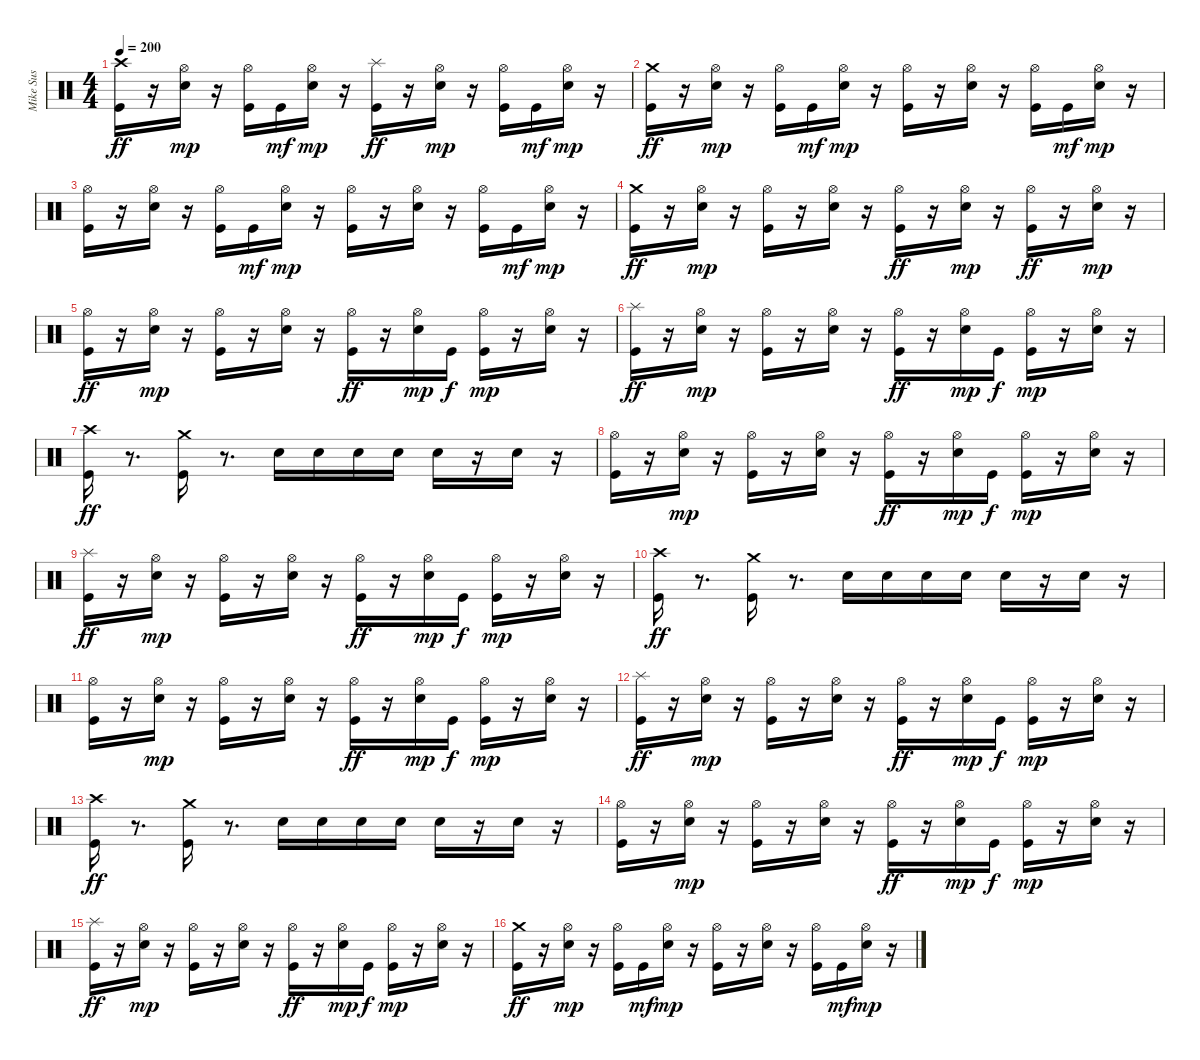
\track ("Mike Sus" "Mike Sus") {instrument percussion}
\staff {score}
\articulation defaults
\ts (4 4)
\tempo 200
\clef neutral
\ks c
("Kick (hit)" "Crash high (hit)").16{dy ff} r.16 ("Snare (hit) 2" "Hi-Hat (open)").16{dy mp} r.16 ("Kick (hit)" "Hi-Hat (open)").16 "Kick (hit)".16{dy mf} ("Snare (hit) 2" "Hi-Hat (open)").16{dy mp} r.16 ("Kick (hit)" "Splash (hit)").16{dy ff} r.16 ("Snare (hit) 2" "Hi-Hat (open)").16{dy mp} r.16 ("Kick (hit)" "Hi-Hat (open)").16 "Kick (hit)".16{dy mf} ("Snare (hit) 2" "Hi-Hat (open)").16{dy mp} r.16 |
("Kick (hit)" "Crash medium (hit)").16{dy ff} r.16 ("Snare (hit) 2" "Hi-Hat (open)").16{dy mp} r.16 ("Kick (hit)" "Hi-Hat (open)").16 "Kick (hit)".16{dy mf} ("Snare (hit) 2" "Hi-Hat (open)").16{dy mp} r.16 ("Kick (hit)" "Hi-Hat (open)").16 r.16 ("Snare (hit) 2" "Hi-Hat (open)").16 r.16 ("Kick (hit)" "Hi-Hat (open)").16 "Kick (hit)".16{dy mf} ("Snare (hit) 2" "Hi-Hat (open)").16{dy mp} r.16 |
("Kick (hit)" "Hi-Hat (open)").16 r.16 ("Snare (hit) 2" "Hi-Hat (open)").16 r.16 ("Kick (hit)" "Hi-Hat (open)").16 "Kick (hit)".16{dy mf} ("Snare (hit) 2" "Hi-Hat (open)").16{dy mp} r.16 ("Kick (hit)" "Hi-Hat (open)").16 r.16 ("Snare (hit) 2" "Hi-Hat (open)").16 r.16 ("Kick (hit)" "Hi-Hat (open)").16 "Kick (hit)".16{dy mf} ("Snare (hit) 2" "Hi-Hat (open)").16{dy mp} r.16 |
("Kick (hit)" "Crash medium (hit)").16{dy ff} r.16 ("Snare (hit) 2" "Hi-Hat (open)").16{dy mp} r.16 ("Kick (hit)" "Hi-Hat (open)").16 r.16 ("Snare (hit) 2" "Hi-Hat (open)").16 r.16 ("Hi-Hat (open)" "Kick (hit)").16{dy ff} r.16 ("Snare (hit) 2" "Hi-Hat (open)").16{dy mp} r.16 ("Hi-Hat (open)" "Kick (hit)").16{dy ff} r.16 ("Snare (hit) 2" "Hi-Hat (open)").16{dy mp} r.16 |
("Hi-Hat (open)" "Kick (hit)").16{dy ff} r.16 ("Snare (hit) 2" "Hi-Hat (open)").16{dy mp} r.16 ("Kick (hit)" "Hi-Hat (open)").16 r.16 ("Snare (hit) 2" "Hi-Hat (open)").16 r.16 ("Hi-Hat (open)" "Kick (hit)").16{dy ff} r.16 ("Snare (hit) 2" "Hi-Hat (open)").16{dy mp} "Kick (hit)".16{dy f} ("Hi-Hat (open)" "Kick (hit)").16{dy mp} r.16 ("Snare (hit) 2" "Hi-Hat (open)").16 r.16 |
("Kick (hit)" "Splash (hit)").16{dy ff} r.16 ("Snare (hit) 2" "Hi-Hat (open)").16{dy mp} r.16 ("Kick (hit)" "Hi-Hat (open)").16 r.16 ("Snare (hit) 2" "Hi-Hat (open)").16 r.16 ("Hi-Hat (open)" "Kick (hit)").16{dy ff} r.16 ("Snare (hit) 2" "Hi-Hat (open)").16{dy mp} "Kick (hit)".16{dy f} ("Hi-Hat (open)" "Kick (hit)").16{dy mp} r.16 ("Snare (hit) 2" "Hi-Hat (open)").16 r.16 |
("Kick (hit)" "Crash high (hit)").16{dy ff} r.8{d} ("Kick (hit)" "Crash medium (hit)").16 r.8{d} "Snare (hit) 2".16 "Snare (hit) 2".16 "Snare (hit) 2".16 "Snare (hit) 2".16 "Snare (hit) 2".16 r.16 "Snare (hit) 2".16 r.16 |
("Hi-Hat (open)" "Kick (hit)").16 r.16 ("Snare (hit) 2" "Hi-Hat (open)").16{dy mp} r.16 ("Kick (hit)" "Hi-Hat (open)").16 r.16 ("Snare (hit) 2" "Hi-Hat (open)").16 r.16 ("Hi-Hat (open)" "Kick (hit)").16{dy ff} r.16 ("Snare (hit) 2" "Hi-Hat (open)").16{dy mp} "Kick (hit)".16{dy f} ("Hi-Hat (open)" "Kick (hit)").16{dy mp} r.16 ("Snare (hit) 2" "Hi-Hat (open)").16 r.16 |
("Kick (hit)" "Splash (hit)").16{dy ff} r.16 ("Snare (hit) 2" "Hi-Hat (open)").16{dy mp} r.16 ("Kick (hit)" "Hi-Hat (open)").16 r.16 ("Snare (hit) 2" "Hi-Hat (open)").16 r.16 ("Hi-Hat (open)" "Kick (hit)").16{dy ff} r.16 ("Snare (hit) 2" "Hi-Hat (open)").16{dy mp} "Kick (hit)".16{dy f} ("Hi-Hat (open)" "Kick (hit)").16{dy mp} r.16 ("Snare (hit) 2" "Hi-Hat (open)").16 r.16 |
("Kick (hit)" "Crash high (hit)").16{dy ff} r.8{d} ("Kick (hit)" "Crash medium (hit)").16 r.8{d} "Snare (hit) 2".16 "Snare (hit) 2".16 "Snare (hit) 2".16 "Snare (hit) 2".16 "Snare (hit) 2".16 r.16 "Snare (hit) 2".16 r.16 |
("Hi-Hat (open)" "Kick (hit)").16 r.16 ("Snare (hit) 2" "Hi-Hat (open)").16{dy mp} r.16 ("Kick (hit)" "Hi-Hat (open)").16 r.16 ("Snare (hit) 2" "Hi-Hat (open)").16 r.16 ("Hi-Hat (open)" "Kick (hit)").16{dy ff} r.16 ("Snare (hit) 2" "Hi-Hat (open)").16{dy mp} "Kick (hit)".16{dy f} ("Hi-Hat (open)" "Kick (hit)").16{dy mp} r.16 ("Snare (hit) 2" "Hi-Hat (open)").16 r.16 |
("Kick (hit)" "Splash (hit)").16{dy ff} r.16 ("Snare (hit) 2" "Hi-Hat (open)").16{dy mp} r.16 ("Kick (hit)" "Hi-Hat (open)").16 r.16 ("Snare (hit) 2" "Hi-Hat (open)").16 r.16 ("Hi-Hat (open)" "Kick (hit)").16{dy ff} r.16 ("Snare (hit) 2" "Hi-Hat (open)").16{dy mp} "Kick (hit)".16{dy f} ("Hi-Hat (open)" "Kick (hit)").16{dy mp} r.16 ("Snare (hit) 2" "Hi-Hat (open)").16 r.16 |
("Kick (hit)" "Crash high (hit)").16{dy ff} r.8{d} ("Kick (hit)" "Crash medium (hit)").16 r.8{d} "Snare (hit) 2".16 "Snare (hit) 2".16 "Snare (hit) 2".16 "Snare (hit) 2".16 "Snare (hit) 2".16 r.16 "Snare (hit) 2".16 r.16 |
("Hi-Hat (open)" "Kick (hit)").16 r.16 ("Snare (hit) 2" "Hi-Hat (open)").16{dy mp} r.16 ("Kick (hit)" "Hi-Hat (open)").16 r.16 ("Snare (hit) 2" "Hi-Hat (open)").16 r.16 ("Hi-Hat (open)" "Kick (hit)").16{dy ff} r.16 ("Snare (hit) 2" "Hi-Hat (open)").16{dy mp} "Kick (hit)".16{dy f} ("Hi-Hat (open)" "Kick (hit)").16{dy mp} r.16 ("Snare (hit) 2" "Hi-Hat (open)").16 r.16 |
("Kick (hit)" "Splash (hit)").16{dy ff} r.16 ("Snare (hit) 2" "Hi-Hat (open)").16{dy mp} r.16 ("Kick (hit)" "Hi-Hat (open)").16 r.16 ("Snare (hit) 2" "Hi-Hat (open)").16 r.16 ("Hi-Hat (open)" "Kick (hit)").16{dy ff} r.16 ("Snare (hit) 2" "Hi-Hat (open)").16{dy mp} "Kick (hit)".16{dy f} ("Hi-Hat (open)" "Kick (hit)").16{dy mp} r.16 ("Snare (hit) 2" "Hi-Hat (open)").16 r.16 |
("Kick (hit)" "Crash medium (hit)").16{dy ff} r.16 ("Snare (hit) 2" "Hi-Hat (open)").16{dy mp} r.16 ("Kick (hit)" "Hi-Hat (open)").16 "Kick (hit)".16{dy mf} ("Snare (hit) 2" "Hi-Hat (open)").16{dy mp} r.16 ("Kick (hit)" "Hi-Hat (open)").16 r.16 ("Snare (hit) 2" "Hi-Hat (open)").16 r.16 ("Kick (hit)" "Hi-Hat (open)").16 "Kick (hit)".16{dy mf} ("Snare (hit) 2" "Hi-Hat (open)").16{dy mp} r.16
